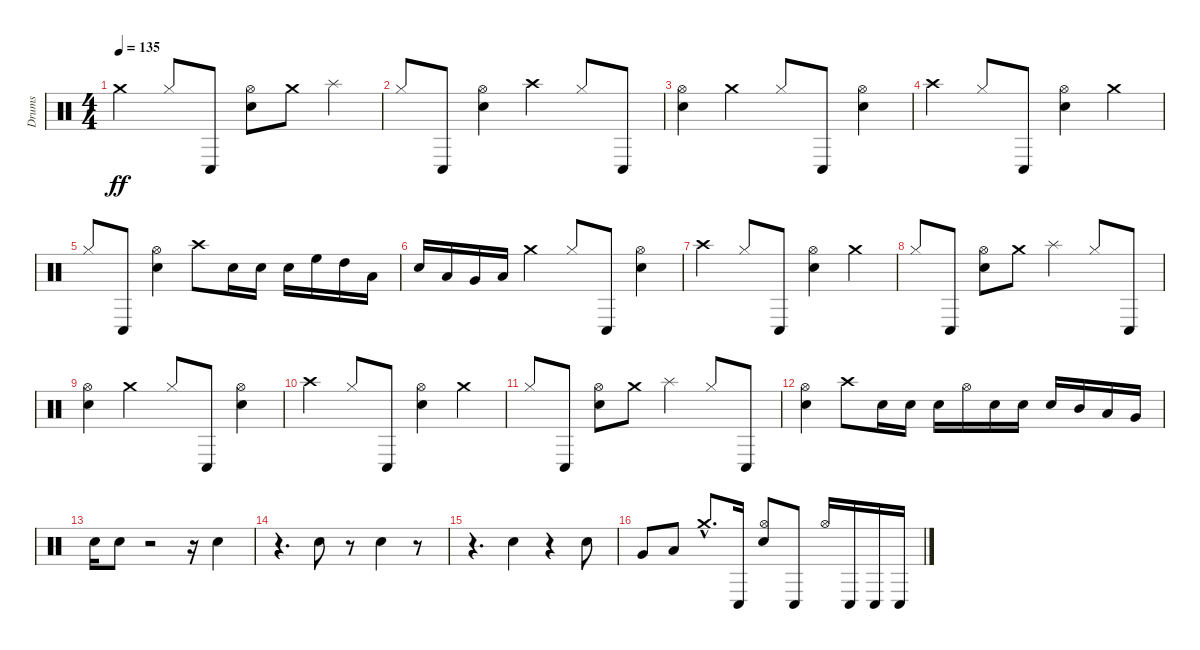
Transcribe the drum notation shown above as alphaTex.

\track ("Drums" "Drums") {instrument percussion}
\staff {score}
\articulation defaults
\ts (4 4)
\tempo 135
\clef neutral
\ks c "Crash medium (hit)".4{dy ff} "Hi-Hat (closed)".8 "Conga low (hit)".8
("Electric Snare (hit)" "Hi-Hat (open)").8 "Crash medium (hit)".8 "Splash (hit)".4 |
"Hi-Hat (closed)".8 "Conga low (hit)".8 ("Electric Snare (hit)" "Hi-Hat (open)").4 "Crash high (hit)".4 "Hi-Hat (closed)".8 "Conga low (hit)".8 |
("Electric Snare (hit)" "Hi-Hat (open)").4 "Crash medium (hit)".4 "Hi-Hat (closed)".8 "Conga low (hit)".8 ("Electric Snare (hit)" "Hi-Hat (open)").4 |
"Crash high (hit)".4 "Hi-Hat (closed)".8 "Conga low (hit)".8 ("Electric Snare (hit)" "Hi-Hat (open)").4 "Crash medium (hit)".4 |
"Hi-Hat (closed)".8 "Conga low (hit)".8 ("Electric Snare (hit)" "Hi-Hat (open)").4 "Crash high (hit)".8 "Electric Snare (hit)".16 "Electric Snare (hit)".16 "Electric Snare (hit)".16 "High Floor Tom (hit)".16 "High Tom (hit)".16 "Low Tom (hit)".16 |
"Electric Snare (hit)".16 "Low Tom (hit)".16 "Very Low Tom (hit)".16 "Low Floor Tom (hit)".16 "Crash medium (hit)".4 "Hi-Hat (closed)".8 "Conga low (hit)".8 ("Electric Snare (hit)" "Hi-Hat (open)").4 |
"Crash high (hit)".4 "Hi-Hat (closed)".8 "Conga low (hit)".8 ("Electric Snare (hit)" "Hi-Hat (open)").4 "Crash medium (hit)".4 |
"Hi-Hat (closed)".8 "Conga low (hit)".8 ("Electric Snare (hit)" "Hi-Hat (open)").8 "Crash medium (hit)".8 "Splash (hit)".4 "Hi-Hat (closed)".8 "Conga low (hit)".8 |
("Electric Snare (hit)" "Hi-Hat (open)").4 "Crash medium (hit)".4 "Hi-Hat (closed)".8 "Conga low (hit)".8 ("Electric Snare (hit)" "Hi-Hat (open)").4 |
"Crash high (hit)".4 "Hi-Hat (closed)".8 "Conga low (hit)".8 ("Electric Snare (hit)" "Hi-Hat (open)").4 "Crash medium (hit)".4 |
"Hi-Hat (closed)".8 "Conga low (hit)".8 ("Electric Snare (hit)" "Hi-Hat (open)").8 "Crash medium (hit)".8 "Splash (hit)".4 "Hi-Hat (closed)".8 "Conga low (hit)".8 |
("Electric Snare (hit)" "Hi-Hat (open)").4 "Crash high (hit)".8 "Electric Snare (hit)".16 "Electric Snare (hit)".16 "Electric Snare (hit)".16 "Hi-Hat (open)".16 "Electric Snare (hit)".16 "Electric Snare (hit)".16 "Electric Snare (hit)".16 "Mid Tom (hit)".16 "Low Tom (hit)".16 "Very Low Tom (hit)".16 |
"Electric Snare (hit)".16 "Electric Snare (hit)".8 r.2 r.16 "Electric Snare (hit)".4 |
r.4{d} "Electric Snare (hit)".8 r.8 "Electric Snare (hit)".4 r.8 |
r.4{d} "Electric Snare (hit)".4 r.4 "Electric Snare (hit)".8 |
"Very Low Tom (hit)".8 "Low Floor Tom (hit)".8 "Crash medium (hit)"{hac}.8{d} "Conga low (hit)".16 ("Electric Snare (hit)" "Hi-Hat (open)").8 "Conga low (hit)".8 "Hi-Hat (open)".16 "Conga low (hit)".16 "Conga low (hit)".16 "Conga low (hit)".16
